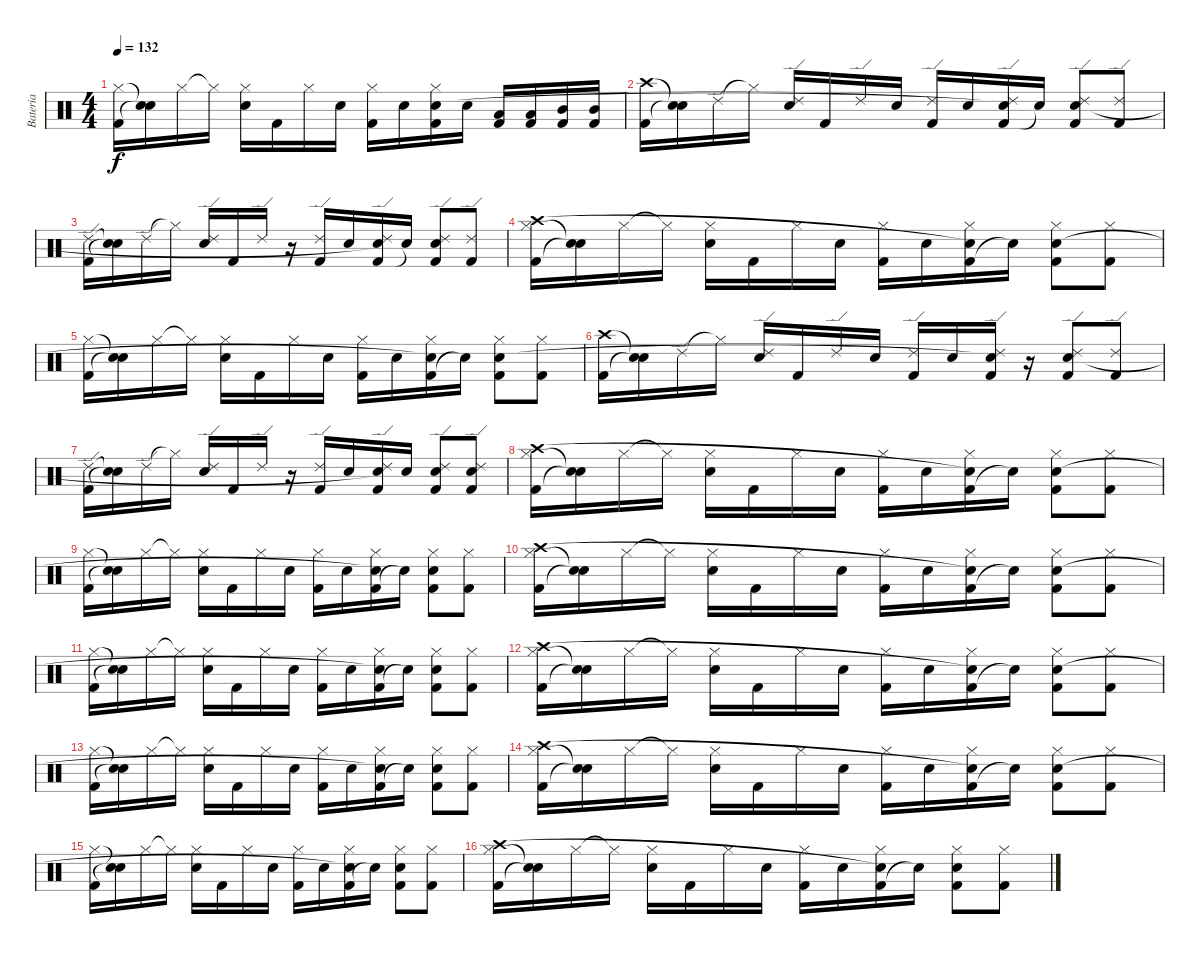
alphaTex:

\track ("Bateria" "Bateria") {instrument percussion}
\staff {score}
\articulation defaults
\ts (4 4)
\tempo 132
\clef neutral
\ks c
("Kick (hit) 2" "Hi-Hat (closed)").16{dy f} ("Snare (hit)"{t} "Electric Snare (hit)"{t}).16 "Hi-Hat (closed)".16 "Hi-Hat (closed)"{t}.16 ("Hi-Hat (closed)" "Electric Snare (hit)").16 "Kick (hit) 2".16 "Hi-Hat (closed)".16 "Electric Snare (hit)".16 ("Kick (hit) 2" "Hi-Hat (closed)").16 "Electric Snare (hit)".16 ("Kick (hit) 2" "Hi-Hat (closed)" "Electric Snare (hit)").16 "Electric Snare (hit)".16 ("Kick (hit) 2" "Low Tom (hit)").16 ("Kick (hit) 2" "Low Tom (hit)").16 ("Kick (hit) 2" "Mid Tom (hit)").16 ("Kick (hit) 2" "Mid Tom (hit)").16 |
("Kick (hit) 2" "Crash high (hit)").16 ("Snare (hit)"{t} "Electric Snare (hit)"{t}).16 "Ride (edge) 2".16 "Hi-Hat (closed)"{t}.16 ("Ride (edge) 2" "Electric Snare (hit)").16 "Kick (hit) 2".16 "Ride (edge) 2".16 "Electric Snare (hit)".16 ("Kick (hit) 2" "Ride (edge) 2").16 "Electric Snare (hit)".16 ("Kick (hit) 2" "Ride (edge) 2" "Snare (hit)"{t}).16 "Electric Snare (hit)"{t}.16 ("Kick (hit) 2" "Ride (edge) 2" "Electric Snare (hit)").8 ("Kick (hit) 2" "Ride (edge) 2").8 |
("Kick (hit) 2" "Ride (edge) 2").16 ("Snare (hit)"{t} "Electric Snare (hit)"{t}).16 "Ride (edge) 2".16 "Hi-Hat (closed)"{t}.16 ("Ride (edge) 2" "Electric Snare (hit)").16 "Kick (hit) 2".16 "Ride (edge) 2".16 r.16 ("Kick (hit) 2" "Ride (edge) 2").16 "Electric Snare (hit)".16 ("Kick (hit) 2" "Ride (edge) 2" "Snare (hit)"{t}).16 "Electric Snare (hit)"{t}.16 ("Kick (hit) 2" "Ride (edge) 2" "Electric Snare (hit)").8 ("Kick (hit) 2" "Ride (edge) 2").8 |
("Kick (hit) 2" "Hi-Hat (closed)" "Crash high (hit)").16 ("Snare (hit)"{t} "Electric Snare (hit)"{t}).16 "Hi-Hat (closed)".16 "Hi-Hat (closed)"{t}.16 ("Hi-Hat (closed)" "Electric Snare (hit)").16 "Kick (hit) 2".16 "Hi-Hat (closed)".16 "Electric Snare (hit)".16 ("Kick (hit) 2" "Hi-Hat (closed)").16 "Electric Snare (hit)".16 ("Kick (hit) 2" "Hi-Hat (closed)" "Snare (hit)"{t}).16 "Electric Snare (hit)"{t}.16 ("Kick (hit) 2" "Hi-Hat (closed)" "Electric Snare (hit)").8 ("Kick (hit) 2" "Hi-Hat (closed)").8 |
("Kick (hit) 2" "Hi-Hat (closed)").16 ("Snare (hit)"{t} "Electric Snare (hit)"{t}).16 "Hi-Hat (closed)".16 "Hi-Hat (closed)"{t}.16 ("Hi-Hat (closed)" "Electric Snare (hit)").16 "Kick (hit) 2".16 "Hi-Hat (closed)".16 "Electric Snare (hit)".16 ("Kick (hit) 2" "Hi-Hat (closed)").16 "Electric Snare (hit)".16 ("Kick (hit) 2" "Hi-Hat (closed)" "Snare (hit)"{t}).16 "Electric Snare (hit)"{t}.16 ("Kick (hit) 2" "Hi-Hat (closed)" "Electric Snare (hit)").8 ("Kick (hit) 2" "Hi-Hat (closed)").8 |
("Kick (hit) 2" "Crash high (hit)").16 ("Snare (hit)"{t} "Electric Snare (hit)"{t}).16 "Ride (edge) 2".16 "Hi-Hat (closed)"{t}.16 ("Ride (edge) 2" "Electric Snare (hit)").16 "Kick (hit) 2".16 "Ride (edge) 2".16 "Electric Snare (hit)".16 ("Kick (hit) 2" "Ride (edge) 2").16 "Electric Snare (hit)".16 ("Kick (hit) 2" "Ride (edge) 2" "Snare (hit)"{t}).16 r.16 ("Kick (hit) 2" "Ride (edge) 2" "Electric Snare (hit)").8 ("Kick (hit) 2" "Ride (edge) 2").8 |
("Kick (hit) 2" "Ride (edge) 2").16 ("Snare (hit)"{t} "Electric Snare (hit)"{t}).16 "Ride (edge) 2".16 "Hi-Hat (closed)"{t}.16 ("Ride (edge) 2" "Electric Snare (hit)").16 "Kick (hit) 2".16 "Ride (edge) 2".16 r.16 ("Kick (hit) 2" "Ride (edge) 2").16 "Electric Snare (hit)".16 ("Kick (hit) 2" "Ride (edge) 2" "Snare (hit)"{t}).16 "Electric Snare (hit)".16 ("Kick (hit) 2" "Ride (edge) 2" "Electric Snare (hit)").8 ("Kick (hit) 2" "Ride (edge) 2" "Electric Snare (hit)").8 |
("Kick (hit) 2" "Hi-Hat (closed)" "Crash high (hit)").16 ("Snare (hit)"{t} "Electric Snare (hit)"{t}).16 "Hi-Hat (closed)".16 "Hi-Hat (closed)"{t}.16 ("Hi-Hat (closed)" "Electric Snare (hit)").16 "Kick (hit) 2".16 "Hi-Hat (closed)".16 "Electric Snare (hit)".16 ("Kick (hit) 2" "Hi-Hat (closed)").16 "Electric Snare (hit)".16 ("Kick (hit) 2" "Hi-Hat (closed)" "Snare (hit)"{t}).16 "Electric Snare (hit)"{t}.16 ("Kick (hit) 2" "Hi-Hat (closed)" "Electric Snare (hit)").8 ("Kick (hit) 2" "Hi-Hat (closed)").8 |
("Kick (hit) 2" "Hi-Hat (closed)").16 ("Snare (hit)"{t} "Electric Snare (hit)"{t}).16 "Hi-Hat (closed)".16 "Hi-Hat (closed)"{t}.16 ("Hi-Hat (closed)" "Electric Snare (hit)").16 "Kick (hit) 2".16 "Hi-Hat (closed)".16 "Electric Snare (hit)".16 ("Kick (hit) 2" "Hi-Hat (closed)").16 "Electric Snare (hit)".16 ("Kick (hit) 2" "Hi-Hat (closed)" "Snare (hit)"{t}).16 "Electric Snare (hit)"{t}.16 ("Kick (hit) 2" "Hi-Hat (closed)" "Electric Snare (hit)").8 ("Kick (hit) 2" "Hi-Hat (closed)").8 |
("Kick (hit) 2" "Hi-Hat (closed)" "Crash high (hit)").16 ("Snare (hit)"{t} "Electric Snare (hit)"{t}).16 "Hi-Hat (closed)".16 "Hi-Hat (closed)"{t}.16 ("Hi-Hat (closed)" "Electric Snare (hit)").16 "Kick (hit) 2".16 "Hi-Hat (closed)".16 "Electric Snare (hit)".16 ("Kick (hit) 2" "Hi-Hat (closed)").16 "Electric Snare (hit)".16 ("Kick (hit) 2" "Hi-Hat (closed)" "Snare (hit)"{t}).16 "Electric Snare (hit)"{t}.16 ("Kick (hit) 2" "Hi-Hat (closed)" "Electric Snare (hit)").8 ("Kick (hit) 2" "Hi-Hat (closed)").8 |
("Kick (hit) 2" "Hi-Hat (closed)").16 ("Snare (hit)"{t} "Electric Snare (hit)"{t}).16 "Hi-Hat (closed)".16 "Hi-Hat (closed)"{t}.16 ("Hi-Hat (closed)" "Electric Snare (hit)").16 "Kick (hit) 2".16 "Hi-Hat (closed)".16 "Electric Snare (hit)".16 ("Kick (hit) 2" "Hi-Hat (closed)").16 "Electric Snare (hit)".16 ("Kick (hit) 2" "Hi-Hat (closed)" "Snare (hit)"{t}).16 "Electric Snare (hit)"{t}.16 ("Kick (hit) 2" "Hi-Hat (closed)" "Electric Snare (hit)").8 ("Kick (hit) 2" "Hi-Hat (closed)").8 |
("Kick (hit) 2" "Hi-Hat (closed)" "Crash high (hit)").16 ("Snare (hit)"{t} "Electric Snare (hit)"{t}).16 "Hi-Hat (closed)".16 "Hi-Hat (closed)"{t}.16 ("Hi-Hat (closed)" "Electric Snare (hit)").16 "Kick (hit) 2".16 "Hi-Hat (closed)".16 "Electric Snare (hit)".16 ("Kick (hit) 2" "Hi-Hat (closed)").16 "Electric Snare (hit)".16 ("Kick (hit) 2" "Hi-Hat (closed)" "Snare (hit)"{t}).16 "Electric Snare (hit)"{t}.16 ("Kick (hit) 2" "Hi-Hat (closed)" "Electric Snare (hit)").8 ("Kick (hit) 2" "Hi-Hat (closed)").8 |
("Kick (hit) 2" "Hi-Hat (closed)").16 ("Snare (hit)"{t} "Electric Snare (hit)"{t}).16 "Hi-Hat (closed)".16 "Hi-Hat (closed)"{t}.16 ("Hi-Hat (closed)" "Electric Snare (hit)").16 "Kick (hit) 2".16 "Hi-Hat (closed)".16 "Electric Snare (hit)".16 ("Kick (hit) 2" "Hi-Hat (closed)").16 "Electric Snare (hit)".16 ("Kick (hit) 2" "Hi-Hat (closed)" "Snare (hit)"{t}).16 "Electric Snare (hit)"{t}.16 ("Kick (hit) 2" "Hi-Hat (closed)" "Electric Snare (hit)").8 ("Kick (hit) 2" "Hi-Hat (closed)").8 |
("Kick (hit) 2" "Hi-Hat (closed)" "Crash high (hit)").16 ("Snare (hit)"{t} "Electric Snare (hit)"{t}).16 "Hi-Hat (closed)".16 "Hi-Hat (closed)"{t}.16 ("Hi-Hat (closed)" "Electric Snare (hit)").16 "Kick (hit) 2".16 "Hi-Hat (closed)".16 "Electric Snare (hit)".16 ("Kick (hit) 2" "Hi-Hat (closed)").16 "Electric Snare (hit)".16 ("Kick (hit) 2" "Hi-Hat (closed)" "Snare (hit)"{t}).16 "Electric Snare (hit)"{t}.16 ("Kick (hit) 2" "Hi-Hat (closed)" "Electric Snare (hit)").8 ("Kick (hit) 2" "Hi-Hat (closed)").8 |
("Kick (hit) 2" "Hi-Hat (closed)").16 ("Snare (hit)"{t} "Electric Snare (hit)"{t}).16 "Hi-Hat (closed)".16 "Hi-Hat (closed)"{t}.16 ("Hi-Hat (closed)" "Electric Snare (hit)").16 "Kick (hit) 2".16 "Hi-Hat (closed)".16 "Electric Snare (hit)".16 ("Kick (hit) 2" "Hi-Hat (closed)").16 "Electric Snare (hit)".16 ("Kick (hit) 2" "Hi-Hat (closed)" "Snare (hit)"{t}).16 "Electric Snare (hit)"{t}.16 ("Kick (hit) 2" "Hi-Hat (closed)" "Electric Snare (hit)").8 ("Kick (hit) 2" "Hi-Hat (closed)").8 |
("Kick (hit) 2" "Hi-Hat (closed)" "Crash high (hit)").16 ("Snare (hit)"{t} "Electric Snare (hit)"{t}).16 "Hi-Hat (closed)".16 "Hi-Hat (closed)"{t}.16 ("Hi-Hat (closed)" "Electric Snare (hit)").16 "Kick (hit) 2".16 "Hi-Hat (closed)".16 "Electric Snare (hit)".16 ("Kick (hit) 2" "Hi-Hat (closed)").16 "Electric Snare (hit)".16 ("Kick (hit) 2" "Hi-Hat (closed)" "Snare (hit)"{t}).16 "Electric Snare (hit)"{t}.16 ("Kick (hit) 2" "Hi-Hat (closed)" "Electric Snare (hit)").8 ("Kick (hit) 2" "Hi-Hat (closed)").8
